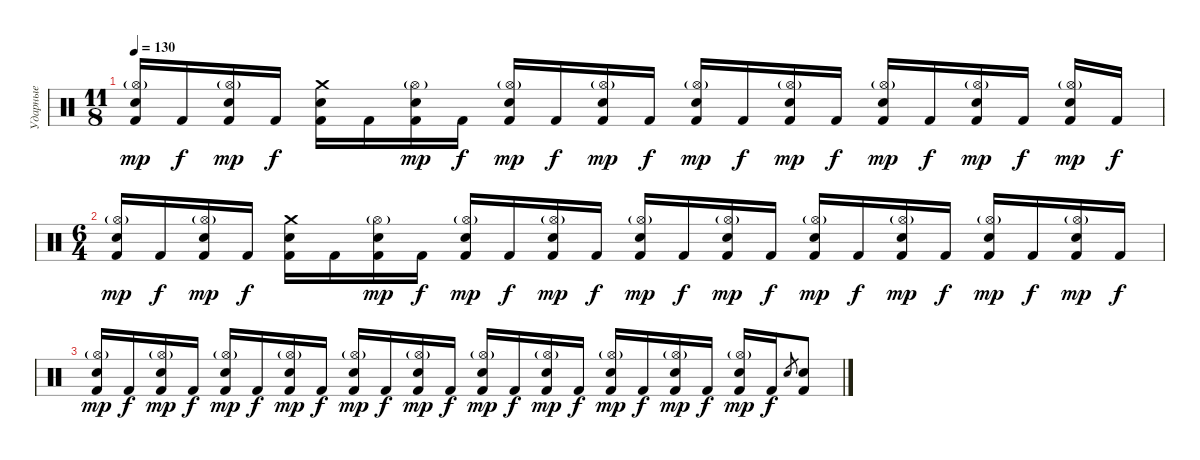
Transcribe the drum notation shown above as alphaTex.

\track ("Ударные" "Ударные") {instrument percussion}
\staff {score}
\articulation defaults
\ts (11 8)
\tempo 130
\clef neutral
\ks c
("Electric Snare (hit)" "Hi-Hat (open)"{g} "Kick (hit) 2").16{dy mp} "Kick (hit) 2".16{dy f} ("Electric Snare (hit)" "Hi-Hat (open)"{g} "Kick (hit) 2").16{dy mp} "Kick (hit) 2".16{dy f} ("Electric Snare (hit)" "Crash medium (hit)" "Kick (hit) 2").16 "Kick (hit) 2".16 ("Electric Snare (hit)" "Hi-Hat (open)"{g} "Kick (hit) 2").16{dy mp} "Kick (hit) 2".16{dy f} ("Electric Snare (hit)" "Hi-Hat (open)"{g} "Kick (hit) 2").16{dy mp} "Kick (hit) 2".16{dy f} ("Electric Snare (hit)" "Hi-Hat (open)"{g} "Kick (hit) 2").16{dy mp} "Kick (hit) 2".16{dy f} ("Electric Snare (hit)" "Hi-Hat (open)"{g} "Kick (hit) 2").16{dy mp} "Kick (hit) 2".16{dy f} ("Electric Snare (hit)" "Hi-Hat (open)"{g} "Kick (hit) 2").16{dy mp} "Kick (hit) 2".16{dy f} ("Electric Snare (hit)" "Hi-Hat (open)"{g} "Kick (hit) 2").16{dy mp} "Kick (hit) 2".16{dy f} ("Electric Snare (hit)" "Hi-Hat (open)"{g} "Kick (hit) 2").16{dy mp} "Kick (hit) 2".16{dy f} ("Electric Snare (hit)" "Hi-Hat (open)"{g} "Kick (hit) 2").16{dy mp} "Kick (hit) 2".16{dy f} |
\ts (6 4)
("Electric Snare (hit)" "Hi-Hat (open)"{g} "Kick (hit) 2").16{dy mp} "Kick (hit) 2".16{dy f} ("Electric Snare (hit)" "Hi-Hat (open)"{g} "Kick (hit) 2").16{dy mp} "Kick (hit) 2".16{dy f} ("Crash medium (hit)" "Electric Snare (hit)" "Kick (hit) 2").16 "Kick (hit) 2".16 ("Electric Snare (hit)" "Hi-Hat (open)"{g} "Kick (hit) 2").16{dy mp} "Kick (hit) 2".16{dy f} ("Electric Snare (hit)" "Hi-Hat (open)"{g} "Kick (hit) 2").16{dy mp} "Kick (hit) 2".16{dy f} ("Electric Snare (hit)" "Hi-Hat (open)"{g} "Kick (hit) 2").16{dy mp} "Kick (hit) 2".16{dy f} ("Electric Snare (hit)" "Hi-Hat (open)"{g} "Kick (hit) 2").16{dy mp} "Kick (hit) 2".16{dy f} ("Electric Snare (hit)" "Hi-Hat (open)"{g} "Kick (hit) 2").16{dy mp} "Kick (hit) 2".16{dy f} ("Electric Snare (hit)" "Hi-Hat (open)"{g} "Kick (hit) 2").16{dy mp} "Kick (hit) 2".16{dy f} ("Electric Snare (hit)" "Hi-Hat (open)"{g} "Kick (hit) 2").16{dy mp} "Kick (hit) 2".16{dy f} ("Electric Snare (hit)" "Hi-Hat (open)"{g} "Kick (hit) 2").16{dy mp} "Kick (hit) 2".16{dy f} ("Electric Snare (hit)" "Hi-Hat (open)"{g} "Kick (hit) 2").16{dy mp} "Kick (hit) 2".16{dy f} |
("Electric Snare (hit)" "Hi-Hat (open)"{g} "Kick (hit) 2").16{dy mp} "Kick (hit) 2".16{dy f} ("Electric Snare (hit)" "Hi-Hat (open)"{g} "Kick (hit) 2").16{dy mp} "Kick (hit) 2".16{dy f} ("Electric Snare (hit)" "Hi-Hat (open)"{g} "Kick (hit) 2").16{dy mp} "Kick (hit) 2".16{dy f} ("Electric Snare (hit)" "Hi-Hat (open)"{g} "Kick (hit) 2").16{dy mp} "Kick (hit) 2".16{dy f} ("Electric Snare (hit)" "Hi-Hat (open)"{g} "Kick (hit) 2").16{dy mp} "Kick (hit) 2".16{dy f} ("Electric Snare (hit)" "Hi-Hat (open)"{g} "Kick (hit) 2").16{dy mp} "Kick (hit) 2".16{dy f} ("Electric Snare (hit)" "Hi-Hat (open)"{g} "Kick (hit) 2").16{dy mp} "Kick (hit) 2".16{dy f} ("Electric Snare (hit)" "Hi-Hat (open)"{g} "Kick (hit) 2").16{dy mp} "Kick (hit) 2".16{dy f} ("Electric Snare (hit)" "Hi-Hat (open)"{g} "Kick (hit) 2").16{dy mp} "Kick (hit) 2".16{dy f} ("Electric Snare (hit)" "Hi-Hat (open)"{g} "Kick (hit) 2").16{dy mp} "Kick (hit) 2".16{dy f} ("Electric Snare (hit)" "Hi-Hat (open)"{g} "Kick (hit) 2").16{dy mp} "Kick (hit) 2".16{dy f} "Electric Snare (hit)".8{gr} ("Electric Snare (hit)" "Kick (hit) 2").8
